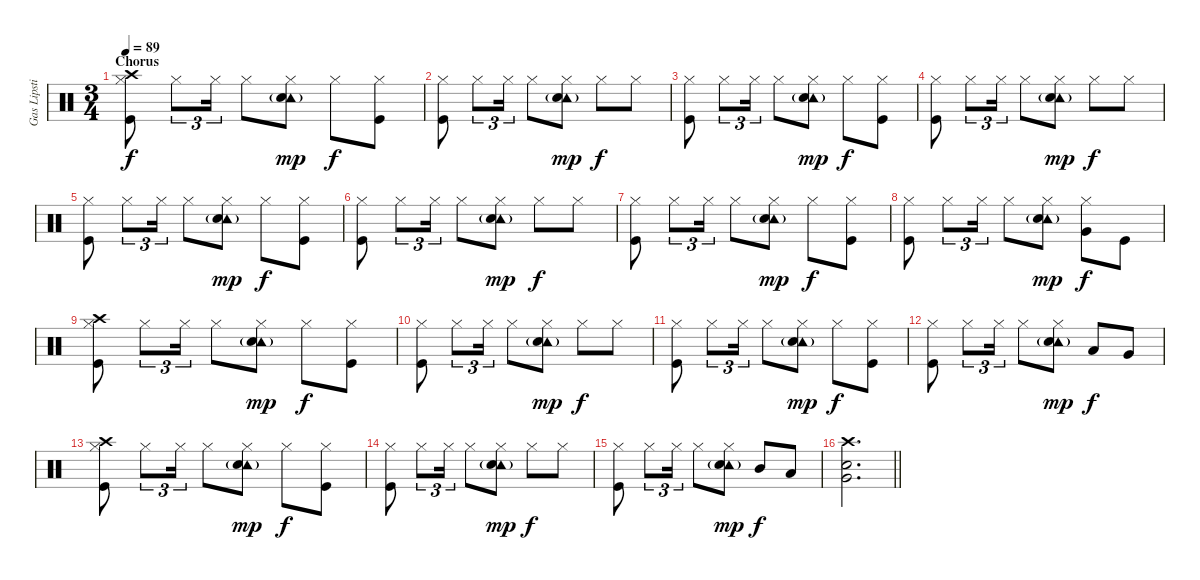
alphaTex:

\track ("Gas Lipstick (Drums)" "Gas Lipsti") {instrument percussion}
\staff {score}
\articulation defaults
\ts (3 4)
\section ("" "Chorus")
\tempo 89
\clef neutral
\ks c
("Crash high (hit)" "Hi-Hat (closed)" "Kick (hit)").8{dy f} "Hi-Hat (closed)".8{tu (3 2)} "Hi-Hat (closed)".16{tu (3 2)} "Hi-Hat (closed)".8 ("Tambourine (hit)"{g} "Hi-Hat (closed)" "Snare (hit) 2").8{dy mp} "Hi-Hat (closed)".8{dy f} ("Hi-Hat (closed)" "Kick (hit)").8 |
("Hi-Hat (closed)" "Kick (hit)").8 "Hi-Hat (closed)".8{tu (3 2)} "Hi-Hat (closed)".16{tu (3 2)} "Hi-Hat (closed)".8 ("Tambourine (hit)"{g} "Hi-Hat (closed)" "Snare (hit) 2").8{dy mp} "Hi-Hat (closed)".8{dy f} "Hi-Hat (closed)".8 |
("Hi-Hat (closed)" "Kick (hit)").8 "Hi-Hat (closed)".8{tu (3 2)} "Hi-Hat (closed)".16{tu (3 2)} "Hi-Hat (closed)".8 ("Tambourine (hit)"{g} "Hi-Hat (closed)" "Snare (hit) 2").8{dy mp} "Hi-Hat (closed)".8{dy f} ("Hi-Hat (closed)" "Kick (hit)").8 |
("Hi-Hat (closed)" "Kick (hit)").8 "Hi-Hat (closed)".8{tu (3 2)} "Hi-Hat (closed)".16{tu (3 2)} "Hi-Hat (closed)".8 ("Tambourine (hit)"{g} "Hi-Hat (closed)" "Snare (hit) 2").8{dy mp} "Hi-Hat (closed)".8{dy f} "Hi-Hat (closed)".8 |
("Hi-Hat (closed)" "Kick (hit)").8 "Hi-Hat (closed)".8{tu (3 2)} "Hi-Hat (closed)".16{tu (3 2)} "Hi-Hat (closed)".8 ("Tambourine (hit)"{g} "Hi-Hat (closed)" "Snare (hit) 2").8{dy mp} "Hi-Hat (closed)".8{dy f} ("Hi-Hat (closed)" "Kick (hit)").8 |
("Hi-Hat (closed)" "Kick (hit)").8 "Hi-Hat (closed)".8{tu (3 2)} "Hi-Hat (closed)".16{tu (3 2)} "Hi-Hat (closed)".8 ("Tambourine (hit)"{g} "Hi-Hat (closed)" "Snare (hit) 2").8{dy mp} "Hi-Hat (closed)".8{dy f} "Hi-Hat (closed)".8 |
("Hi-Hat (closed)" "Kick (hit)").8 "Hi-Hat (closed)".8{tu (3 2)} "Hi-Hat (closed)".16{tu (3 2)} "Hi-Hat (closed)".8 ("Tambourine (hit)"{g} "Hi-Hat (closed)" "Snare (hit) 2").8{dy mp} "Hi-Hat (closed)".8{dy f} ("Hi-Hat (closed)" "Kick (hit)").8 |
("Hi-Hat (closed)" "Kick (hit)").8 "Hi-Hat (closed)".8{tu (3 2)} "Hi-Hat (closed)".16{tu (3 2)} "Hi-Hat (closed)".8 ("Tambourine (hit)"{g} "Hi-Hat (closed)" "Snare (hit) 2").8{dy mp} ("Hi-Hat (closed)" "Very Low Tom (hit)").8{dy f} "Kick (hit)".8 |
("Crash high (hit)" "Hi-Hat (closed)" "Kick (hit)").8 "Hi-Hat (closed)".8{tu (3 2)} "Hi-Hat (closed)".16{tu (3 2)} "Hi-Hat (closed)".8 ("Tambourine (hit)"{g} "Hi-Hat (closed)" "Snare (hit) 2").8{dy mp} "Hi-Hat (closed)".8{dy f} ("Hi-Hat (closed)" "Kick (hit)").8 |
("Hi-Hat (closed)" "Kick (hit)").8 "Hi-Hat (closed)".8{tu (3 2)} "Hi-Hat (closed)".16{tu (3 2)} "Hi-Hat (closed)".8 ("Tambourine (hit)"{g} "Hi-Hat (closed)" "Snare (hit) 2").8{dy mp} "Hi-Hat (closed)".8{dy f} "Hi-Hat (closed)".8 |
("Hi-Hat (closed)" "Kick (hit)").8 "Hi-Hat (closed)".8{tu (3 2)} "Hi-Hat (closed)".16{tu (3 2)} "Hi-Hat (closed)".8 ("Tambourine (hit)"{g} "Hi-Hat (closed)" "Snare (hit) 2").8{dy mp} "Hi-Hat (closed)".8{dy f} ("Hi-Hat (closed)" "Kick (hit)").8 |
("Hi-Hat (closed)" "Kick (hit)").8 "Hi-Hat (closed)".8{tu (3 2)} "Hi-Hat (closed)".16{tu (3 2)} "Hi-Hat (closed)".8 ("Tambourine (hit)"{g} "Hi-Hat (closed)" "Snare (hit) 2").8{dy mp} "Low Tom (hit)".8{dy f} "Very Low Tom (hit)".8 |
("Crash high (hit)" "Hi-Hat (closed)" "Kick (hit)").8 "Hi-Hat (closed)".8{tu (3 2)} "Hi-Hat (closed)".16{tu (3 2)} "Hi-Hat (closed)".8 ("Tambourine (hit)"{g} "Hi-Hat (closed)" "Snare (hit) 2").8{dy mp} "Hi-Hat (closed)".8{dy f} ("Hi-Hat (closed)" "Kick (hit)").8 |
("Hi-Hat (closed)" "Kick (hit)").8 "Hi-Hat (closed)".8{tu (3 2)} "Hi-Hat (closed)".16{tu (3 2)} "Hi-Hat (closed)".8 ("Tambourine (hit)"{g} "Hi-Hat (closed)" "Snare (hit) 2").8{dy mp} "Hi-Hat (closed)".8{dy f} "Hi-Hat (closed)".8 |
("Hi-Hat (closed)" "Kick (hit)").8 "Hi-Hat (closed)".8{tu (3 2)} "Hi-Hat (closed)".16{tu (3 2)} "Hi-Hat (closed)".8 ("Tambourine (hit)"{g} "Hi-Hat (closed)" "Snare (hit) 2").8{dy mp} "Mid Tom (hit)".8{dy f} "Low Tom (hit)".8 |
\barLineRight lightlight
("Crash high (hit)" "Very Low Tom (hit)" "Snare (hit) 2").2{d}
